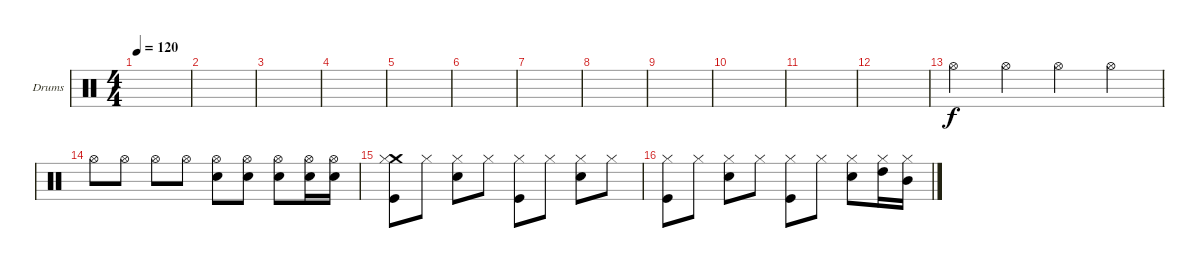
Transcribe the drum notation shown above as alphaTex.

\bracketExtendMode groupsimilarinstruments
\firstSystemTrackNameOrientation horizontal
\otherSystemsTrackNameOrientation horizontal
\track ("Drumkit" "Drums") {instrument percussion}
\staff {score}
\articulation defaults
\ts (4 4)
\tempo 120
\clef neutral
\ks c
|
|
|
|
|
|
|
|
|
|
|
|
"Hi-Hat (open)".4 "Hi-Hat (open)".4 "Hi-Hat (open)".4 "Hi-Hat (open)".4 |
"Hi-Hat (open)".8 "Hi-Hat (open)".8 "Hi-Hat (open)".8 "Hi-Hat (open)".8 ("Snare (hit) 2" "Hi-Hat (open)").8 ("Snare (hit) 2" "Hi-Hat (open)").8 ("Snare (hit) 2" "Hi-Hat (open)").8 ("Snare (hit) 2" "Hi-Hat (open)").16 ("Snare (hit) 2" "Hi-Hat (open)").16 |
("Crash medium (hit)" "Kick (hit)" "Hi-Hat (closed)").8 "Hi-Hat (closed)".8 ("Snare (hit) 2" "Hi-Hat (closed)").8 "Hi-Hat (closed)".8 ("Kick (hit)" "Hi-Hat (closed)").8 "Hi-Hat (closed)".8 ("Snare (hit) 2" "Hi-Hat (closed)").8 "Hi-Hat (closed)".8 |
("Kick (hit)" "Hi-Hat (closed)").8 "Hi-Hat (closed)".8 ("Snare (hit) 2" "Hi-Hat (closed)").8 "Hi-Hat (closed)".8 ("Kick (hit)" "Hi-Hat (closed)").8 "Hi-Hat (closed)".8 ("Snare (hit) 2" "Hi-Hat (closed)").8 ("High Tom (hit)" "Hi-Hat (closed)").16 ("Mid Tom (hit)" "Hi-Hat (closed)").16
